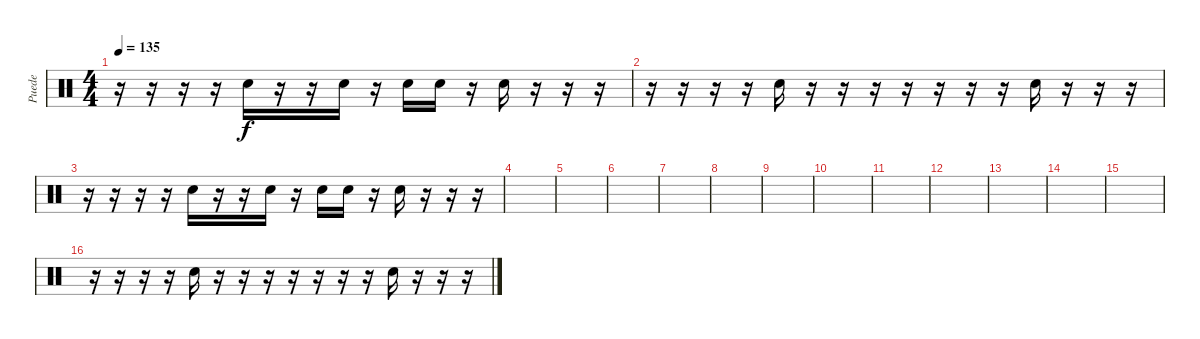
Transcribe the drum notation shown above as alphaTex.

\track ("Puede" "Puede") {instrument percussion}
\staff {score}
\articulation defaults
\ts (4 4)
\tempo 135
\clef neutral
\ks c
r.16{dy f} r.16 r.16 r.16 "Hand Clap (hit)".16 r.16 r.16 "Hand Clap (hit)".16 r.16 "Hand Clap (hit)".16 "Hand Clap (hit)".16 r.16 "Hand Clap (hit)".16 r.16 r.16 r.16 |
r.16 r.16 r.16 r.16 "Hand Clap (hit)".16 r.16 r.16 r.16 r.16 r.16 r.16 r.16 "Hand Clap (hit)".16 r.16 r.16 r.16 |
r.16 r.16 r.16 r.16 "Hand Clap (hit)".16 r.16 r.16 "Hand Clap (hit)".16 r.16 "Hand Clap (hit)".16 "Hand Clap (hit)".16 r.16 "Hand Clap (hit)".16 r.16 r.16 r.16 |
|
|
|
|
|
|
|
|
|
|
|
|
r.16 r.16 r.16 r.16 "Hand Clap (hit)".16 r.16 r.16 r.16 r.16 r.16 r.16 r.16 "Hand Clap (hit)".16 r.16 r.16 r.16
